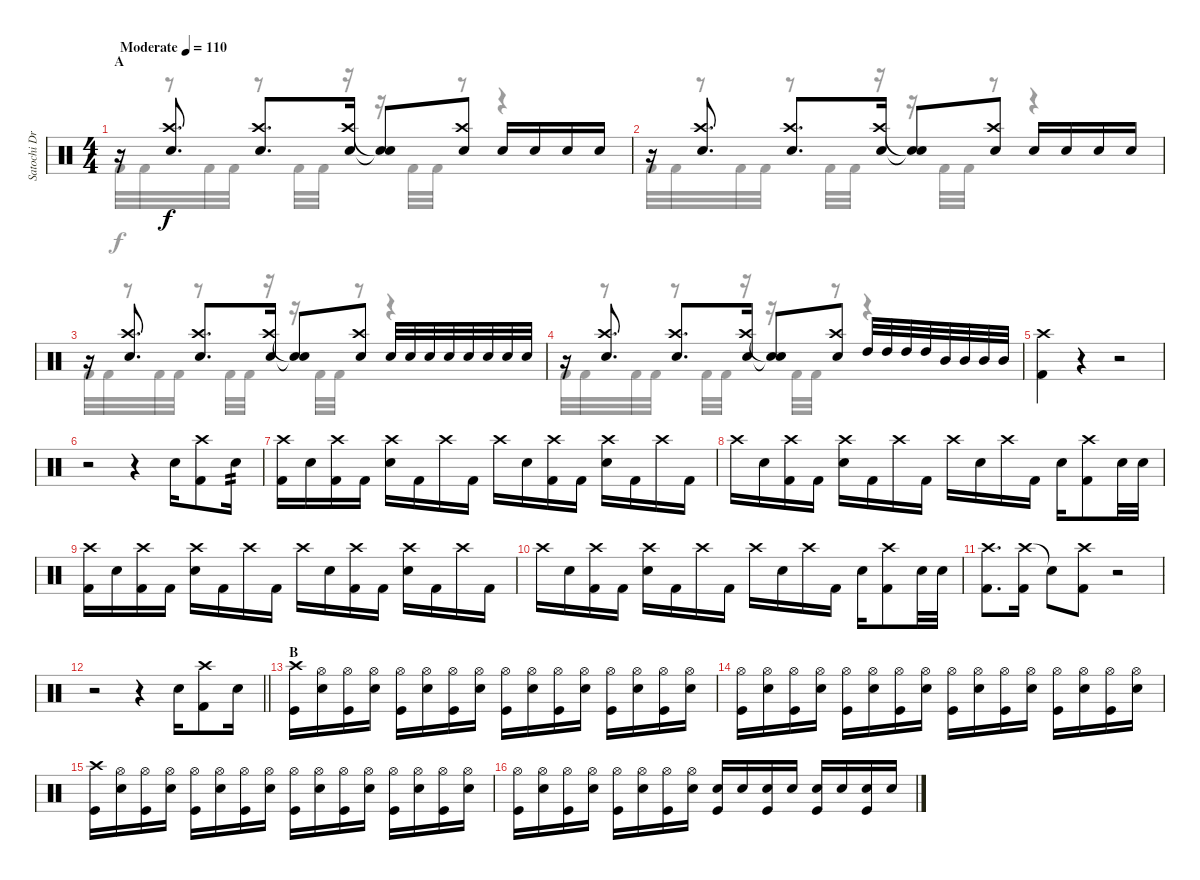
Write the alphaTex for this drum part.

\track ("Satochi Drums" "Satochi Dr") {instrument percussion}
\staff {score}
\articulation defaults
\voice
\ts (4 4)
\section ("" "A")
\tempo (110 "Moderate")
\clef neutral
\ks c
r.16{dy f} ("Crash high (hit)" "Snare (hit) 2").8{d} ("Crash high (hit)" "Snare (hit) 2").8{d} ("Crash high (hit)" "Snare (hit) 2").16 ("Snare (hit)"{t} "Snare (hit)"{t}).8 ("Crash high (hit)" "Snare (hit) 2").8 "Snare (hit) 2".16 "Snare (hit) 2".16 "Snare (hit) 2".16 "Snare (hit) 2".16 |
r.16 ("Crash high (hit)" "Snare (hit) 2").8{d} ("Crash high (hit)" "Snare (hit) 2").8{d} ("Crash high (hit)" "Snare (hit) 2").16 ("Snare (hit)"{t} "Snare (hit)"{t}).8 ("Crash high (hit)" "Snare (hit) 2").8 "Snare (hit) 2".16 "Snare (hit) 2".16 "Snare (hit) 2".16 "Snare (hit) 2".16 |
r.16 ("Crash high (hit)" "Snare (hit) 2").8{d} ("Crash high (hit)" "Snare (hit) 2").8{d} ("Crash high (hit)" "Snare (hit) 2").16 ("Snare (hit)"{t} "Snare (hit)"{t}).8 ("Crash high (hit)" "Snare (hit) 2").8 "Snare (hit) 2".32 "Snare (hit) 2".32 "Snare (hit) 2".32 "Snare (hit) 2".32 "Snare (hit) 2".32 "Snare (hit) 2".32 "Snare (hit) 2".32 "Snare (hit) 2".32 |
r.16 ("Crash high (hit)" "Snare (hit) 2").8{d} ("Crash high (hit)" "Snare (hit) 2").8{d} ("Crash high (hit)" "Snare (hit) 2").16 ("Snare (hit)"{t} "Snare (hit)"{t}).8 ("Crash high (hit)" "Snare (hit) 2").8 "High Tom (hit)".32 "High Tom (hit)".32 "High Tom (hit)".32 "High Tom (hit)".32 "Mid Tom (hit)".32 "Mid Tom (hit)".32 "Mid Tom (hit)".32 "Mid Tom (hit)".32 |
("Crash high (hit)" "Kick (hit) 2").4 r.4 r.2 |
r.2 r.4 "Snare (hit) 2".16 ("Crash high (hit)" "Kick (hit) 2").8 "Snare (hit) 2".16{tp 2} |
("Crash high (hit)" "Kick (hit) 2").16 "Snare (hit) 2".16 ("Crash high (hit)" "Kick (hit) 2").16 "Kick (hit) 2".16 ("Crash high (hit)" "Snare (hit) 2").16 "Kick (hit) 2".16 "Crash high (hit)".16 "Kick (hit) 2".16 "Crash high (hit)".16 "Snare (hit) 2".16 ("Crash high (hit)" "Kick (hit) 2").16 "Kick (hit) 2".16 ("Crash high (hit)" "Snare (hit) 2").16 "Kick (hit) 2".16 "Crash high (hit)".16 "Kick (hit) 2".16 |
"Crash high (hit)".16 "Snare (hit) 2".16 ("Crash high (hit)" "Kick (hit) 2").16 "Kick (hit) 2".16 ("Crash high (hit)" "Snare (hit) 2").16 "Kick (hit) 2".16 "Crash high (hit)".16 "Kick (hit) 2".16 "Crash high (hit)".16 "Snare (hit) 2".16 "Crash high (hit)".16 "Kick (hit) 2".16 "Snare (hit) 2".16 ("Crash high (hit)" "Kick (hit) 2").8 "Snare (hit) 2".32 "Snare (hit) 2".32 |
("Crash high (hit)" "Kick (hit) 2").16 "Snare (hit) 2".16 ("Crash high (hit)" "Kick (hit) 2").16 "Kick (hit) 2".16 ("Crash high (hit)" "Snare (hit) 2").16 "Kick (hit) 2".16 "Crash high (hit)".16 "Kick (hit) 2".16 "Crash high (hit)".16 "Snare (hit) 2".16 ("Crash high (hit)" "Kick (hit) 2").16 "Kick (hit) 2".16 ("Crash high (hit)" "Snare (hit) 2").16 "Kick (hit) 2".16 "Crash high (hit)".16 "Kick (hit) 2".16 |
"Crash high (hit)".16 "Snare (hit) 2".16 ("Crash high (hit)" "Kick (hit) 2").16 "Kick (hit) 2".16 ("Crash high (hit)" "Snare (hit) 2").16 "Kick (hit) 2".16 "Crash high (hit)".16 "Kick (hit) 2".16 "Crash high (hit)".16 "Snare (hit) 2".16 "Crash high (hit)".16 "Kick (hit) 2".16 "Snare (hit) 2".16 ("Crash high (hit)" "Kick (hit) 2").8 "Snare (hit) 2".32 "Snare (hit) 2".32 |
("Crash high (hit)" "Kick (hit) 2").8{d} ("Crash high (hit)" "Kick (hit) 2").16 "Snare (hit)"{t}.8 ("Crash high (hit)" "Kick (hit) 2").8 r.2 |
\barLineRight lightlight
r.2 r.4 "Snare (hit) 2".16 ("Crash high (hit)" "Kick (hit) 2").8 "Snare (hit) 2".16 |
\section ("" "B")
("Crash high (hit)" "Kick (hit)").16 ("Hi-Hat (open)" "Electric Snare (hit)").16 ("Hi-Hat (open)" "Kick (hit)").16 ("Hi-Hat (open)" "Electric Snare (hit)").16 ("Hi-Hat (open)" "Kick (hit)").16 ("Hi-Hat (open)" "Electric Snare (hit)").16 ("Hi-Hat (open)" "Kick (hit)").16 ("Hi-Hat (open)" "Electric Snare (hit)").16 ("Hi-Hat (open)" "Kick (hit)").16 ("Hi-Hat (open)" "Electric Snare (hit)").16 ("Hi-Hat (open)" "Kick (hit)").16 ("Hi-Hat (open)" "Electric Snare (hit)").16 ("Hi-Hat (open)" "Kick (hit)").16 ("Hi-Hat (open)" "Electric Snare (hit)").16 ("Hi-Hat (open)" "Kick (hit)").16 ("Hi-Hat (open)" "Electric Snare (hit)").16 |
("Hi-Hat (open)" "Kick (hit)").16 ("Hi-Hat (open)" "Electric Snare (hit)").16 ("Hi-Hat (open)" "Kick (hit)").16 ("Hi-Hat (open)" "Electric Snare (hit)").16 ("Hi-Hat (open)" "Kick (hit)").16 ("Hi-Hat (open)" "Electric Snare (hit)").16 ("Hi-Hat (open)" "Kick (hit)").16 ("Hi-Hat (open)" "Electric Snare (hit)").16 ("Hi-Hat (open)" "Kick (hit)").16 ("Hi-Hat (open)" "Electric Snare (hit)").16 ("Hi-Hat (open)" "Kick (hit)").16 ("Hi-Hat (open)" "Electric Snare (hit)").16 ("Hi-Hat (open)" "Kick (hit)").16 ("Hi-Hat (open)" "Electric Snare (hit)").16 ("Hi-Hat (open)" "Kick (hit)").16 ("Hi-Hat (open)" "Electric Snare (hit)").16 |
("Crash high (hit)" "Kick (hit)").16 ("Hi-Hat (open)" "Electric Snare (hit)").16 ("Hi-Hat (open)" "Kick (hit)").16 ("Hi-Hat (open)" "Electric Snare (hit)").16 ("Hi-Hat (open)" "Kick (hit)").16 ("Hi-Hat (open)" "Electric Snare (hit)").16 ("Hi-Hat (open)" "Kick (hit)").16 ("Hi-Hat (open)" "Electric Snare (hit)").16 ("Hi-Hat (open)" "Kick (hit)").16 ("Hi-Hat (open)" "Electric Snare (hit)").16 ("Hi-Hat (open)" "Kick (hit)").16 ("Hi-Hat (open)" "Electric Snare (hit)").16 ("Hi-Hat (open)" "Kick (hit)").16 ("Hi-Hat (open)" "Electric Snare (hit)").16 ("Hi-Hat (open)" "Kick (hit)").16 ("Hi-Hat (open)" "Electric Snare (hit)").16 |
("Hi-Hat (open)" "Kick (hit)").16 ("Hi-Hat (open)" "Electric Snare (hit)").16 ("Hi-Hat (open)" "Kick (hit)").16 ("Hi-Hat (open)" "Electric Snare (hit)").16 ("Hi-Hat (open)" "Kick (hit)").16 ("Hi-Hat (open)" "Electric Snare (hit)").16 ("Hi-Hat (open)" "Kick (hit)").16 ("Hi-Hat (open)" "Electric Snare (hit)").16 ("Electric Snare (hit)" "Kick (hit)").16 "Electric Snare (hit)".16 ("Electric Snare (hit)" "Kick (hit)").16 "Electric Snare (hit)".16 ("Electric Snare (hit)" "Kick (hit)").16 "Electric Snare (hit)".16 ("Electric Snare (hit)" "Kick (hit)").16 "Electric Snare (hit)".16
\voice
\clef neutral
\ottava regular
\simile none
\ks c "Kick (hit) 2".32{dy f} "Kick (hit) 2".32
r.8 "Kick (hit) 2".32 "Kick (hit) 2".32 r.8 "Kick (hit) 2".32 "Kick (hit) 2".32 r.16 r.16 "Kick (hit) 2".32 "Kick (hit) 2".32 r.8 r.4 |
"Kick (hit) 2".32 "Kick (hit) 2".32 r.8 "Kick (hit) 2".32 "Kick (hit) 2".32 r.8 "Kick (hit) 2".32 "Kick (hit) 2".32 r.16 r.16 "Kick (hit) 2".32 "Kick (hit) 2".32 r.8 r.4 |
"Kick (hit) 2".32 "Kick (hit) 2".32 r.8 "Kick (hit) 2".32 "Kick (hit) 2".32 r.8 "Kick (hit) 2".32 "Kick (hit) 2".32 r.16 r.16 "Kick (hit) 2".32 "Kick (hit) 2".32 r.8 r.4 |
"Kick (hit) 2".32 "Kick (hit) 2".32 r.8 "Kick (hit) 2".32 "Kick (hit) 2".32 r.8 "Kick (hit) 2".32 "Kick (hit) 2".32 r.16 r.16 "Kick (hit) 2".32 "Kick (hit) 2".32 r.8 r.4 |
|
|
|
|
|
|
|
\barLineRight lightlight
|
|
|
|
